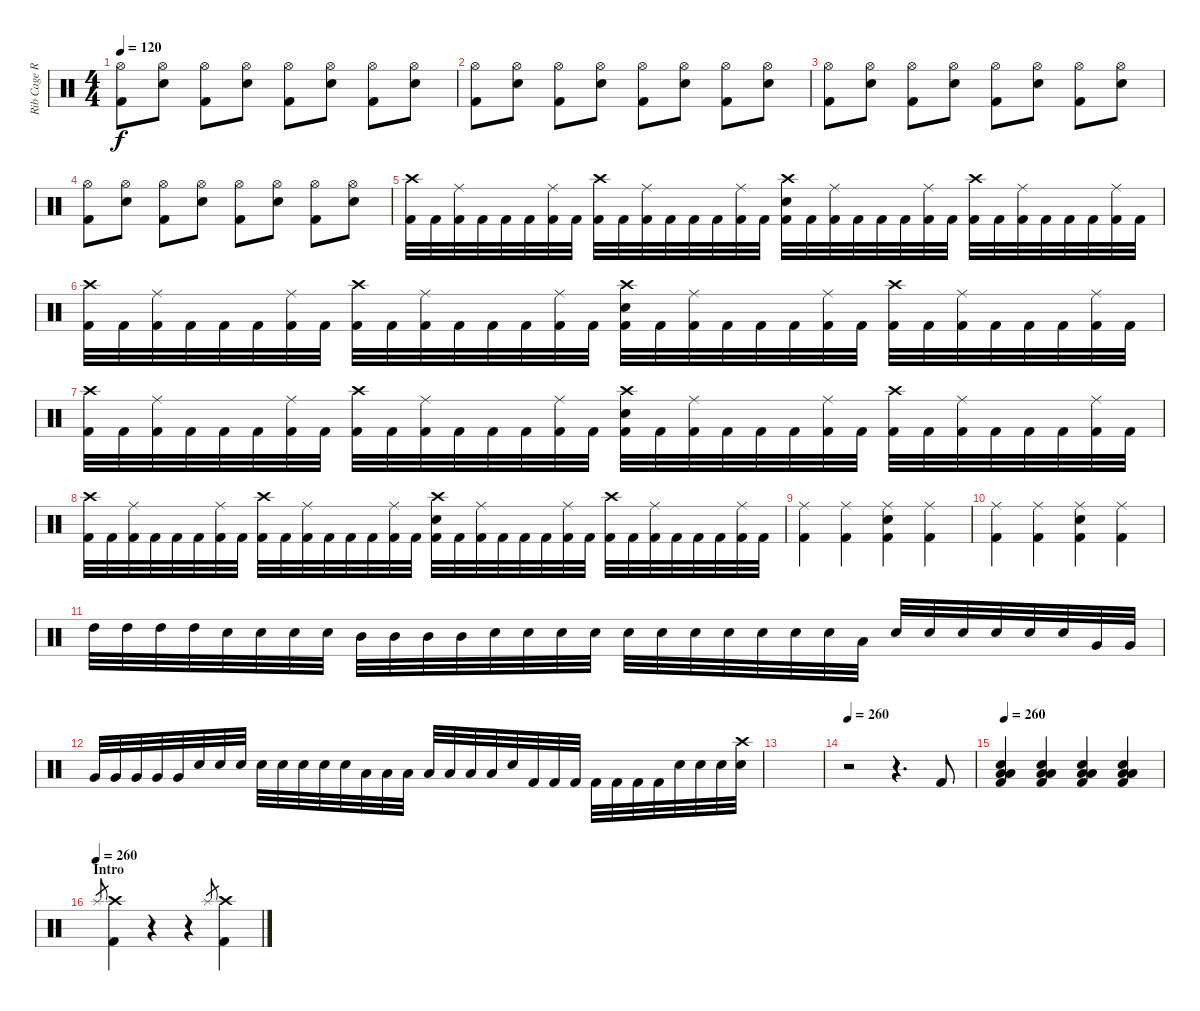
\track ("Rib Cage Rupturing God Stomping Cremator" "Rib Cage R") {instrument percussion}
\staff {score}
\articulation defaults
\ts (4 4)
\tempo 120
\clef neutral
\ks c
("Hi-Hat (open)" "Kick (hit) 2").8{dy f} ("Hi-Hat (open)" "Electric Snare (hit)").8 ("Hi-Hat (open)" "Kick (hit) 2").8 ("Hi-Hat (open)" "Electric Snare (hit)").8 ("Hi-Hat (open)" "Kick (hit) 2").8 ("Hi-Hat (open)" "Electric Snare (hit)").8 ("Hi-Hat (open)" "Kick (hit) 2").8 ("Hi-Hat (open)" "Electric Snare (hit)").8 |
("Hi-Hat (open)" "Kick (hit) 2").8 ("Hi-Hat (open)" "Electric Snare (hit)").8 ("Hi-Hat (open)" "Kick (hit) 2").8 ("Hi-Hat (open)" "Electric Snare (hit)").8 ("Hi-Hat (open)" "Kick (hit) 2").8 ("Hi-Hat (open)" "Electric Snare (hit)").8 ("Hi-Hat (open)" "Kick (hit) 2").8 ("Hi-Hat (open)" "Electric Snare (hit)").8 |
("Hi-Hat (open)" "Kick (hit) 2").8 ("Hi-Hat (open)" "Electric Snare (hit)").8 ("Hi-Hat (open)" "Kick (hit) 2").8 ("Hi-Hat (open)" "Electric Snare (hit)").8 ("Hi-Hat (open)" "Kick (hit) 2").8 ("Hi-Hat (open)" "Electric Snare (hit)").8 ("Hi-Hat (open)" "Kick (hit) 2").8 ("Hi-Hat (open)" "Electric Snare (hit)").8 |
("Hi-Hat (open)" "Kick (hit) 2").8 ("Hi-Hat (open)" "Electric Snare (hit)").8 ("Hi-Hat (open)" "Kick (hit) 2").8 ("Hi-Hat (open)" "Electric Snare (hit)").8 ("Hi-Hat (open)" "Kick (hit) 2").8 ("Hi-Hat (open)" "Electric Snare (hit)").8 ("Hi-Hat (open)" "Kick (hit) 2").8 ("Hi-Hat (open)" "Electric Snare (hit)").8 |
("Crash high (hit)" "Kick (hit) 2").32 "Kick (hit) 2".32 ("Ride (middle)" "Kick (hit) 2").32 "Kick (hit) 2".32 "Kick (hit) 2".32 "Kick (hit) 2".32 ("Ride (middle)" "Kick (hit) 2").32 "Kick (hit) 2".32 ("Crash high (hit)" "Kick (hit) 2").32 "Kick (hit) 2".32 ("Ride (middle)" "Kick (hit) 2").32 "Kick (hit) 2".32 "Kick (hit) 2".32 "Kick (hit) 2".32 ("Ride (middle)" "Kick (hit) 2").32 "Kick (hit) 2".32 ("Crash high (hit)" "Electric Snare (hit)" "Kick (hit) 2").32 "Kick (hit) 2".32 ("Ride (middle)" "Kick (hit) 2").32 "Kick (hit) 2".32 "Kick (hit) 2".32 "Kick (hit) 2".32 ("Ride (middle)" "Kick (hit) 2").32 "Kick (hit) 2".32 ("Crash high (hit)" "Kick (hit) 2").32 "Kick (hit) 2".32 ("Ride (middle)" "Kick (hit) 2").32 "Kick (hit) 2".32 "Kick (hit) 2".32 "Kick (hit) 2".32 ("Ride (middle)" "Kick (hit) 2").32 "Kick (hit) 2".32 |
("Crash high (hit)" "Kick (hit) 2").32 "Kick (hit) 2".32 ("Ride (middle)" "Kick (hit) 2").32 "Kick (hit) 2".32 "Kick (hit) 2".32 "Kick (hit) 2".32 ("Ride (middle)" "Kick (hit) 2").32 "Kick (hit) 2".32 ("Crash high (hit)" "Kick (hit) 2").32 "Kick (hit) 2".32 ("Ride (middle)" "Kick (hit) 2").32 "Kick (hit) 2".32 "Kick (hit) 2".32 "Kick (hit) 2".32 ("Ride (middle)" "Kick (hit) 2").32 "Kick (hit) 2".32 ("Crash high (hit)" "Electric Snare (hit)" "Kick (hit) 2").32 "Kick (hit) 2".32 ("Ride (middle)" "Kick (hit) 2").32 "Kick (hit) 2".32 "Kick (hit) 2".32 "Kick (hit) 2".32 ("Ride (middle)" "Kick (hit) 2").32 "Kick (hit) 2".32 ("Crash high (hit)" "Kick (hit) 2").32 "Kick (hit) 2".32 ("Ride (middle)" "Kick (hit) 2").32 "Kick (hit) 2".32 "Kick (hit) 2".32 "Kick (hit) 2".32 ("Ride (middle)" "Kick (hit) 2").32 "Kick (hit) 2".32 |
("Crash high (hit)" "Kick (hit) 2").32 "Kick (hit) 2".32 ("Ride (middle)" "Kick (hit) 2").32 "Kick (hit) 2".32 "Kick (hit) 2".32 "Kick (hit) 2".32 ("Ride (middle)" "Kick (hit) 2").32 "Kick (hit) 2".32 ("Crash high (hit)" "Kick (hit) 2").32 "Kick (hit) 2".32 ("Ride (middle)" "Kick (hit) 2").32 "Kick (hit) 2".32 "Kick (hit) 2".32 "Kick (hit) 2".32 ("Ride (middle)" "Kick (hit) 2").32 "Kick (hit) 2".32 ("Crash high (hit)" "Electric Snare (hit)" "Kick (hit) 2").32 "Kick (hit) 2".32 ("Ride (middle)" "Kick (hit) 2").32 "Kick (hit) 2".32 "Kick (hit) 2".32 "Kick (hit) 2".32 ("Ride (middle)" "Kick (hit) 2").32 "Kick (hit) 2".32 ("Crash high (hit)" "Kick (hit) 2").32 "Kick (hit) 2".32 ("Ride (middle)" "Kick (hit) 2").32 "Kick (hit) 2".32 "Kick (hit) 2".32 "Kick (hit) 2".32 ("Ride (middle)" "Kick (hit) 2").32 "Kick (hit) 2".32 |
("Crash high (hit)" "Kick (hit) 2").32 "Kick (hit) 2".32 ("Ride (middle)" "Kick (hit) 2").32 "Kick (hit) 2".32 "Kick (hit) 2".32 "Kick (hit) 2".32 ("Ride (middle)" "Kick (hit) 2").32 "Kick (hit) 2".32 ("Crash high (hit)" "Kick (hit) 2").32 "Kick (hit) 2".32 ("Ride (middle)" "Kick (hit) 2").32 "Kick (hit) 2".32 "Kick (hit) 2".32 "Kick (hit) 2".32 ("Ride (middle)" "Kick (hit) 2").32 "Kick (hit) 2".32 ("Crash high (hit)" "Electric Snare (hit)" "Kick (hit) 2").32 "Kick (hit) 2".32 ("Ride (middle)" "Kick (hit) 2").32 "Kick (hit) 2".32 "Kick (hit) 2".32 "Kick (hit) 2".32 ("Ride (middle)" "Kick (hit) 2").32 "Kick (hit) 2".32 ("Crash high (hit)" "Kick (hit) 2").32 "Kick (hit) 2".32 ("Ride (middle)" "Kick (hit) 2").32 "Kick (hit) 2".32 "Kick (hit) 2".32 "Kick (hit) 2".32 ("Ride (middle)" "Kick (hit) 2").32 "Kick (hit) 2".32 |
("Ride (middle)" "Kick (hit) 2").4 ("Ride (middle)" "Kick (hit) 2").4 ("Ride (middle)" "Electric Snare (hit)" "Kick (hit) 2").4 ("Ride (middle)" "Kick (hit) 2").4 |
("Ride (middle)" "Kick (hit) 2").4 ("Ride (middle)" "Kick (hit) 2").4 ("Ride (middle)" "Electric Snare (hit)" "Kick (hit) 2").4 ("Ride (middle)" "Kick (hit) 2").4 |
"High Tom (hit)".32 "High Tom (hit)".32 "High Tom (hit)".32 "High Tom (hit)".32 "Electric Snare (hit)".32 "Electric Snare (hit)".32 "Electric Snare (hit)".32 "Electric Snare (hit)".32 "Mid Tom (hit)".32 "Mid Tom (hit)".32 "Mid Tom (hit)".32 "Mid Tom (hit)".32 "Electric Snare (hit)".32 "Electric Snare (hit)".32 "Electric Snare (hit)".32 "Electric Snare (hit)".32 "Electric Snare (hit)".32 "Electric Snare (hit)".32 "Electric Snare (hit)".32 "Electric Snare (hit)".32 "Electric Snare (hit)".32 "Electric Snare (hit)".32 "Electric Snare (hit)".32 "Low Tom (hit)".32 "Electric Snare (hit)".32 "Electric Snare (hit)".32 "Electric Snare (hit)".32 "Electric Snare (hit)".32 "Electric Snare (hit)".32 "Electric Snare (hit)".32 "Very Low Tom (hit)".32 "Very Low Tom (hit)".32 |
"Very Low Tom (hit)".32 "Very Low Tom (hit)".32 "Very Low Tom (hit)".32 "Very Low Tom (hit)".32 "Very Low Tom (hit)".32 "Electric Snare (hit)".32 "Electric Snare (hit)".32 "Electric Snare (hit)".32 "Electric Snare (hit)".32 "Electric Snare (hit)".32 "Electric Snare (hit)".32 "Electric Snare (hit)".32 "Electric Snare (hit)".32 "Low Floor Tom (hit)".32 "Low Floor Tom (hit)".32 "Low Floor Tom (hit)".32 "Low Floor Tom (hit)".32 "Low Floor Tom (hit)".32 "Low Floor Tom (hit)".32 "Low Floor Tom (hit)".32 "Snare (hit)".32 "Kick (hit) 2".32 "Kick (hit) 2".32 "Kick (hit) 2".32 "Kick (hit) 2".32 "Kick (hit) 2".32 "Kick (hit) 2".32 "Kick (hit) 2".32 "Electric Snare (hit)".32 "Electric Snare (hit)".32 "Electric Snare (hit)".32 ("Crash high (hit)" "Electric Snare (hit)").32 |
|
\tempo 260
r.2 r.4{d} "Kick (hit) 2".8 |
\tempo 260
("Electric Snare (hit)" "Low Floor Tom (hit)" "Low Floor Tom (hit)" "Kick (hit) 2").4 ("Electric Snare (hit)" "Low Floor Tom (hit)" "Low Floor Tom (hit)" "Kick (hit) 2").4 ("Electric Snare (hit)" "Low Floor Tom (hit)" "Low Floor Tom (hit)" "Kick (hit) 2").4 ("Electric Snare (hit)" "Low Floor Tom (hit)" "Low Floor Tom (hit)" "Kick (hit) 2").4 |
\section ("" "Intro")
\tempo (260)
"Splash (hit)".8{gr} ("Crash high (hit)" "Kick (hit) 2").4 r.4 r.4 "Splash (hit)".8{gr} ("Crash high (hit)" "Kick (hit) 2").4
